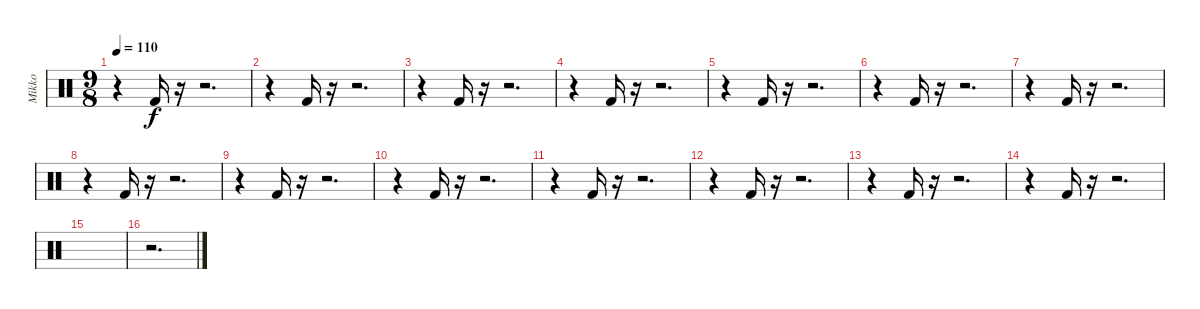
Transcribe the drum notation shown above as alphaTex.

\track ("Mikko" "Mikko") {instrument percussion}
\staff {score}
\articulation defaults
\ts (9 8)
\tempo 110
\clef neutral
\ks c
r.4{dy f} "Kick (hit) 2".16 r.16 r.2{d} |
r.4 "Kick (hit) 2".16 r.16 r.2{d} |
r.4 "Kick (hit) 2".16 r.16 r.2{d} |
r.4 "Kick (hit) 2".16 r.16 r.2{d} |
r.4 "Kick (hit) 2".16 r.16 r.2{d} |
r.4 "Kick (hit) 2".16 r.16 r.2{d} |
r.4 "Kick (hit) 2".16 r.16 r.2{d} |
r.4 "Kick (hit) 2".16 r.16 r.2{d} |
r.4 "Kick (hit) 2".16 r.16 r.2{d} |
r.4 "Kick (hit) 2".16 r.16 r.2{d} |
r.4 "Kick (hit) 2".16 r.16 r.2{d} |
r.4 "Kick (hit) 2".16 r.16 r.2{d} |
r.4 "Kick (hit) 2".16 r.16 r.2{d} |
r.4 "Kick (hit) 2".16 r.16 r.2{d} |
|
r.2{d}
